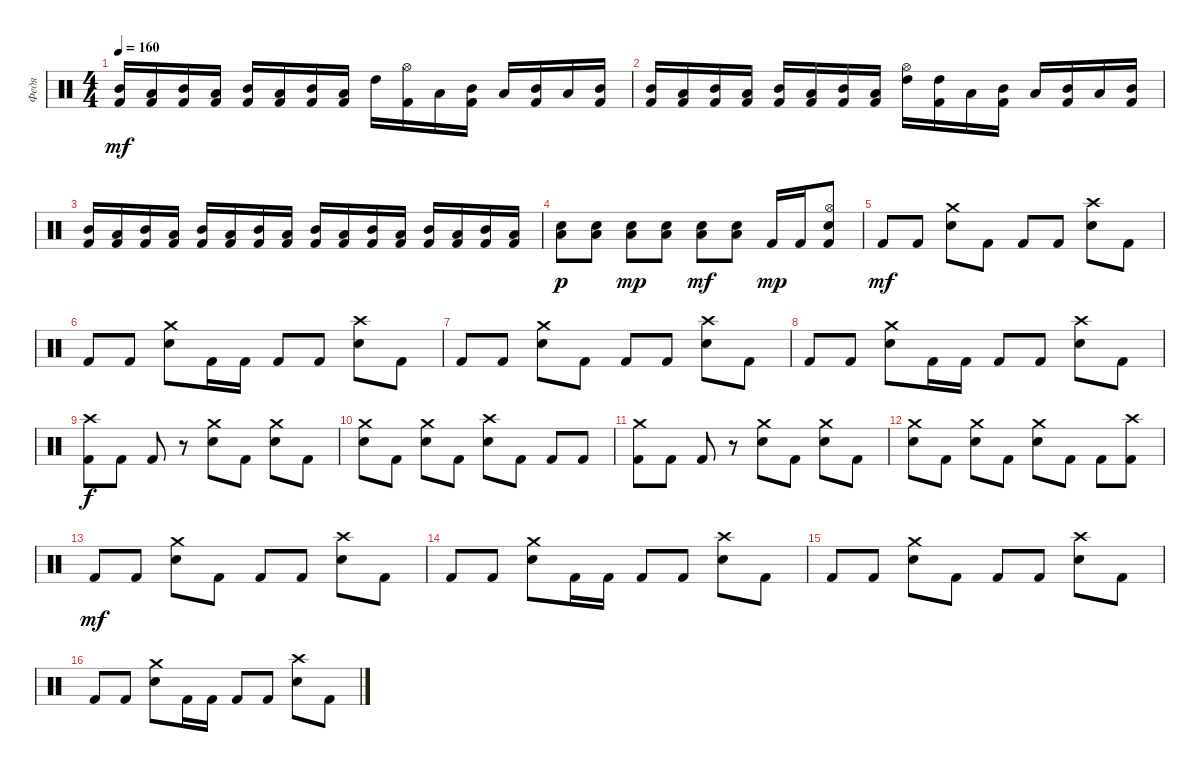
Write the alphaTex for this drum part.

\track ("Федя" "Федя") {instrument percussion}
\staff {score}
\articulation defaults
\ts (4 4)
\tempo 160
\clef neutral
\ks c
("Mid Tom (hit)" "Kick (hit) 2").16{dy mf} ("Low Tom (hit)" "Kick (hit) 2").16 ("Mid Tom (hit)" "Kick (hit) 2").16 ("Low Tom (hit)" "Kick (hit) 2").16 ("Mid Tom (hit)" "Kick (hit) 2").16 ("Low Tom (hit)" "Kick (hit) 2").16 ("Mid Tom (hit)" "Kick (hit) 2").16 ("Low Tom (hit)" "Kick (hit) 2").16 "High Tom (hit)".16 ("Hi-Hat (open)" "Kick (hit) 2").16 "Low Tom (hit)".16 ("Mid Tom (hit)" "Kick (hit) 2").16 "Low Tom (hit)".16 ("Mid Tom (hit)" "Kick (hit) 2").16 "Low Tom (hit)".16 ("Mid Tom (hit)" "Kick (hit) 2").16 |
("Mid Tom (hit)" "Kick (hit) 2").16 ("Low Tom (hit)" "Kick (hit) 2").16 ("Mid Tom (hit)" "Kick (hit) 2").16 ("Low Tom (hit)" "Kick (hit) 2").16 ("Mid Tom (hit)" "Kick (hit) 2").16 ("Low Tom (hit)" "Kick (hit) 2").16 ("Mid Tom (hit)" "Kick (hit) 2").16 ("Low Tom (hit)" "Kick (hit) 2").16 ("Hi-Hat (open)" "High Tom (hit)").16 ("High Tom (hit)" "Kick (hit) 2").16 "Low Tom (hit)".16 ("Mid Tom (hit)" "Kick (hit) 2").16 "Low Tom (hit)".16 ("Mid Tom (hit)" "Kick (hit) 2").16 "Low Tom (hit)".16 ("Mid Tom (hit)" "Kick (hit) 2").16 |
("Mid Tom (hit)" "Kick (hit) 2").16 ("Low Tom (hit)" "Kick (hit) 2").16 ("Mid Tom (hit)" "Kick (hit) 2").16 ("Low Tom (hit)" "Kick (hit) 2").16 ("Mid Tom (hit)" "Kick (hit) 2").16 ("Low Tom (hit)" "Kick (hit) 2").16 ("Mid Tom (hit)" "Kick (hit) 2").16 ("Low Tom (hit)" "Kick (hit) 2").16 ("Mid Tom (hit)" "Kick (hit) 2").16 ("Low Tom (hit)" "Kick (hit) 2").16 ("Mid Tom (hit)" "Kick (hit) 2").16 ("Low Tom (hit)" "Kick (hit) 2").16 ("Mid Tom (hit)" "Kick (hit) 2").16 ("Low Tom (hit)" "Kick (hit) 2").16 ("Mid Tom (hit)" "Kick (hit) 2").16 ("Low Tom (hit)" "Kick (hit) 2").16 |
("Low Tom (hit)" "Electric Snare (hit)").8{dy p} ("Low Tom (hit)" "Electric Snare (hit)").8 ("Low Tom (hit)" "Electric Snare (hit)").8{dy mp} ("Low Tom (hit)" "Electric Snare (hit)").8 ("Low Tom (hit)" "Electric Snare (hit)").8{dy mf} ("Low Tom (hit)" "Electric Snare (hit)").8 "Kick (hit) 2".16{dy mp} "Kick (hit) 2".16 ("Hi-Hat (open)" "Electric Snare (hit)" "Kick (hit) 2").8 |
"Kick (hit) 2".8{dy mf} "Kick (hit) 2".8 ("Crash medium (hit)" "Electric Snare (hit)").8 "Kick (hit) 2".8 "Kick (hit) 2".8 "Kick (hit) 2".8 ("Crash high (hit)" "Electric Snare (hit)").8 "Kick (hit) 2".8 |
"Kick (hit) 2".8 "Kick (hit) 2".8 ("Crash medium (hit)" "Electric Snare (hit)").8 "Kick (hit) 2".16 "Kick (hit) 2".16 "Kick (hit) 2".8 "Kick (hit) 2".8 ("Crash high (hit)" "Electric Snare (hit)").8 "Kick (hit) 2".8 |
"Kick (hit) 2".8 "Kick (hit) 2".8 ("Crash medium (hit)" "Electric Snare (hit)").8 "Kick (hit) 2".8 "Kick (hit) 2".8 "Kick (hit) 2".8 ("Crash high (hit)" "Electric Snare (hit)").8 "Kick (hit) 2".8 |
"Kick (hit) 2".8 "Kick (hit) 2".8 ("Crash medium (hit)" "Electric Snare (hit)").8 "Kick (hit) 2".16 "Kick (hit) 2".16 "Kick (hit) 2".8 "Kick (hit) 2".8 ("Crash high (hit)" "Electric Snare (hit)").8 "Kick (hit) 2".8 |
("Crash high (hit)" "Kick (hit) 2").8{dy f} "Kick (hit) 2".8 "Kick (hit) 2".8 r.8 ("Crash medium (hit)" "Electric Snare (hit)").8 "Kick (hit) 2".8 ("Crash medium (hit)" "Electric Snare (hit)").8 "Kick (hit) 2".8 |
("Crash medium (hit)" "Electric Snare (hit)").8 "Kick (hit) 2".8 ("Crash medium (hit)" "Electric Snare (hit)").8 "Kick (hit) 2".8 ("Crash high (hit)" "Electric Snare (hit)").8 "Kick (hit) 2".8 "Kick (hit) 2".8 "Kick (hit) 2".8 |
("Crash medium (hit)" "Kick (hit) 2").8 "Kick (hit) 2".8 "Kick (hit) 2".8 r.8 ("Crash medium (hit)" "Electric Snare (hit)").8 "Kick (hit) 2".8 ("Crash medium (hit)" "Electric Snare (hit)").8 "Kick (hit) 2".8 |
("Crash medium (hit)" "Electric Snare (hit)").8 "Kick (hit) 2".8 ("Crash medium (hit)" "Electric Snare (hit)").8 "Kick (hit) 2".8 ("Crash medium (hit)" "Electric Snare (hit)").8 "Kick (hit) 2".8 "Kick (hit) 2".8 ("Crash high (hit)" "Kick (hit) 2").8 |
"Kick (hit) 2".8{dy mf} "Kick (hit) 2".8 ("Crash medium (hit)" "Electric Snare (hit)").8 "Kick (hit) 2".8 "Kick (hit) 2".8 "Kick (hit) 2".8 ("Crash high (hit)" "Electric Snare (hit)").8 "Kick (hit) 2".8 |
"Kick (hit) 2".8 "Kick (hit) 2".8 ("Crash medium (hit)" "Electric Snare (hit)").8 "Kick (hit) 2".16 "Kick (hit) 2".16 "Kick (hit) 2".8 "Kick (hit) 2".8 ("Crash high (hit)" "Electric Snare (hit)").8 "Kick (hit) 2".8 |
"Kick (hit) 2".8 "Kick (hit) 2".8 ("Crash medium (hit)" "Electric Snare (hit)").8 "Kick (hit) 2".8 "Kick (hit) 2".8 "Kick (hit) 2".8 ("Crash high (hit)" "Electric Snare (hit)").8 "Kick (hit) 2".8 |
"Kick (hit) 2".8 "Kick (hit) 2".8 ("Crash medium (hit)" "Electric Snare (hit)").8 "Kick (hit) 2".16 "Kick (hit) 2".16 "Kick (hit) 2".8 "Kick (hit) 2".8 ("Crash high (hit)" "Electric Snare (hit)").8 "Kick (hit) 2".8
